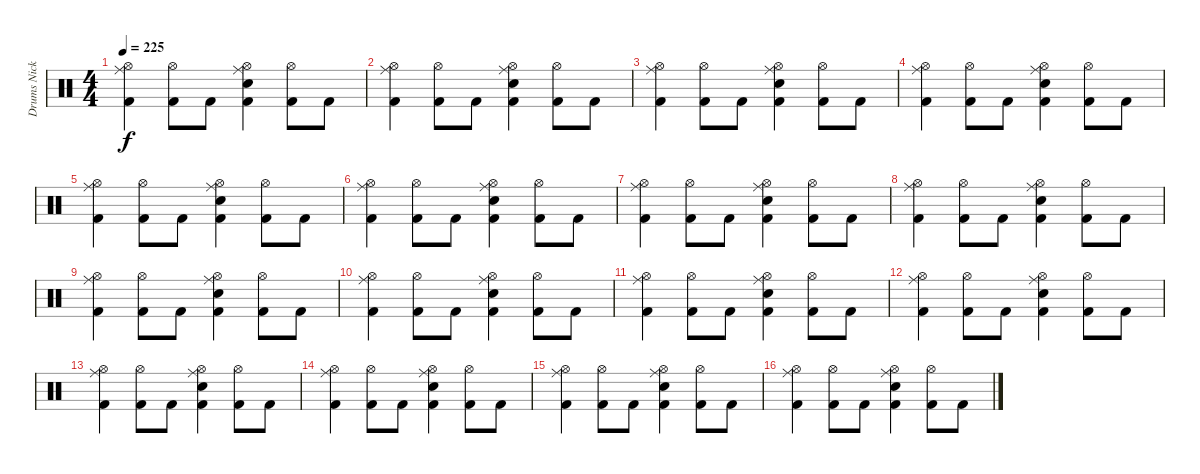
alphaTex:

\track ("Drums Nicko McBrain" "Drums Nick") {instrument percussion}
\staff {score}
\articulation defaults
\ts (4 4)
\tempo 225
\clef neutral
\ks c
("Hi-Hat (open)" "Ride (middle)" "Kick (hit) 2").4{dy f} ("Hi-Hat (open)" "Kick (hit) 2").8 "Kick (hit) 2".8 ("Hi-Hat (open)" "Snare (hit) 2" "Ride (middle)" "Kick (hit) 2").4 ("Hi-Hat (open)" "Kick (hit) 2").8 "Kick (hit) 2".8 |
("Hi-Hat (open)" "Ride (middle)" "Kick (hit) 2").4 ("Hi-Hat (open)" "Kick (hit) 2").8 "Kick (hit) 2".8 ("Hi-Hat (open)" "Snare (hit) 2" "Ride (middle)" "Kick (hit) 2").4 ("Hi-Hat (open)" "Kick (hit) 2").8 "Kick (hit) 2".8 |
("Hi-Hat (open)" "Ride (middle)" "Kick (hit) 2").4 ("Hi-Hat (open)" "Kick (hit) 2").8 "Kick (hit) 2".8 ("Hi-Hat (open)" "Snare (hit) 2" "Ride (middle)" "Kick (hit) 2").4 ("Hi-Hat (open)" "Kick (hit) 2").8 "Kick (hit) 2".8 |
("Hi-Hat (open)" "Ride (middle)" "Kick (hit) 2").4 ("Hi-Hat (open)" "Kick (hit) 2").8 "Kick (hit) 2".8 ("Hi-Hat (open)" "Snare (hit) 2" "Ride (middle)" "Kick (hit) 2").4 ("Hi-Hat (open)" "Kick (hit) 2").8 "Kick (hit) 2".8 |
("Hi-Hat (open)" "Ride (middle)" "Kick (hit) 2").4 ("Hi-Hat (open)" "Kick (hit) 2").8 "Kick (hit) 2".8 ("Hi-Hat (open)" "Snare (hit) 2" "Ride (middle)" "Kick (hit) 2").4 ("Hi-Hat (open)" "Kick (hit) 2").8 "Kick (hit) 2".8 |
("Hi-Hat (open)" "Ride (middle)" "Kick (hit) 2").4 ("Hi-Hat (open)" "Kick (hit) 2").8 "Kick (hit) 2".8 ("Hi-Hat (open)" "Snare (hit) 2" "Ride (middle)" "Kick (hit) 2").4 ("Hi-Hat (open)" "Kick (hit) 2").8 "Kick (hit) 2".8 |
("Hi-Hat (open)" "Ride (middle)" "Kick (hit) 2").4 ("Hi-Hat (open)" "Kick (hit) 2").8 "Kick (hit) 2".8 ("Hi-Hat (open)" "Snare (hit) 2" "Ride (middle)" "Kick (hit) 2").4 ("Hi-Hat (open)" "Kick (hit) 2").8 "Kick (hit) 2".8 |
("Hi-Hat (open)" "Ride (middle)" "Kick (hit) 2").4 ("Hi-Hat (open)" "Kick (hit) 2").8 "Kick (hit) 2".8 ("Hi-Hat (open)" "Snare (hit) 2" "Ride (middle)" "Kick (hit) 2").4 ("Hi-Hat (open)" "Kick (hit) 2").8 "Kick (hit) 2".8 |
("Hi-Hat (open)" "Ride (middle)" "Kick (hit) 2").4 ("Hi-Hat (open)" "Kick (hit) 2").8 "Kick (hit) 2".8 ("Hi-Hat (open)" "Snare (hit) 2" "Ride (middle)" "Kick (hit) 2").4 ("Hi-Hat (open)" "Kick (hit) 2").8 "Kick (hit) 2".8 |
("Hi-Hat (open)" "Ride (middle)" "Kick (hit) 2").4 ("Hi-Hat (open)" "Kick (hit) 2").8 "Kick (hit) 2".8 ("Hi-Hat (open)" "Snare (hit) 2" "Ride (middle)" "Kick (hit) 2").4 ("Hi-Hat (open)" "Kick (hit) 2").8 "Kick (hit) 2".8 |
("Hi-Hat (open)" "Ride (middle)" "Kick (hit) 2").4 ("Hi-Hat (open)" "Kick (hit) 2").8 "Kick (hit) 2".8 ("Hi-Hat (open)" "Snare (hit) 2" "Ride (middle)" "Kick (hit) 2").4 ("Hi-Hat (open)" "Kick (hit) 2").8 "Kick (hit) 2".8 |
("Hi-Hat (open)" "Ride (middle)" "Kick (hit) 2").4 ("Hi-Hat (open)" "Kick (hit) 2").8 "Kick (hit) 2".8 ("Hi-Hat (open)" "Snare (hit) 2" "Ride (middle)" "Kick (hit) 2").4 ("Hi-Hat (open)" "Kick (hit) 2").8 "Kick (hit) 2".8 |
("Hi-Hat (open)" "Ride (middle)" "Kick (hit) 2").4 ("Hi-Hat (open)" "Kick (hit) 2").8 "Kick (hit) 2".8 ("Hi-Hat (open)" "Snare (hit) 2" "Ride (middle)" "Kick (hit) 2").4 ("Hi-Hat (open)" "Kick (hit) 2").8 "Kick (hit) 2".8 |
("Hi-Hat (open)" "Ride (middle)" "Kick (hit) 2").4 ("Hi-Hat (open)" "Kick (hit) 2").8 "Kick (hit) 2".8 ("Hi-Hat (open)" "Snare (hit) 2" "Ride (middle)" "Kick (hit) 2").4 ("Hi-Hat (open)" "Kick (hit) 2").8 "Kick (hit) 2".8 |
("Hi-Hat (open)" "Ride (middle)" "Kick (hit) 2").4 ("Hi-Hat (open)" "Kick (hit) 2").8 "Kick (hit) 2".8 ("Hi-Hat (open)" "Snare (hit) 2" "Ride (middle)" "Kick (hit) 2").4 ("Hi-Hat (open)" "Kick (hit) 2").8 "Kick (hit) 2".8 |
("Hi-Hat (open)" "Ride (middle)" "Kick (hit) 2").4 ("Hi-Hat (open)" "Kick (hit) 2").8 "Kick (hit) 2".8 ("Hi-Hat (open)" "Snare (hit) 2" "Ride (middle)" "Kick (hit) 2").4 ("Hi-Hat (open)" "Kick (hit) 2").8 "Kick (hit) 2".8
